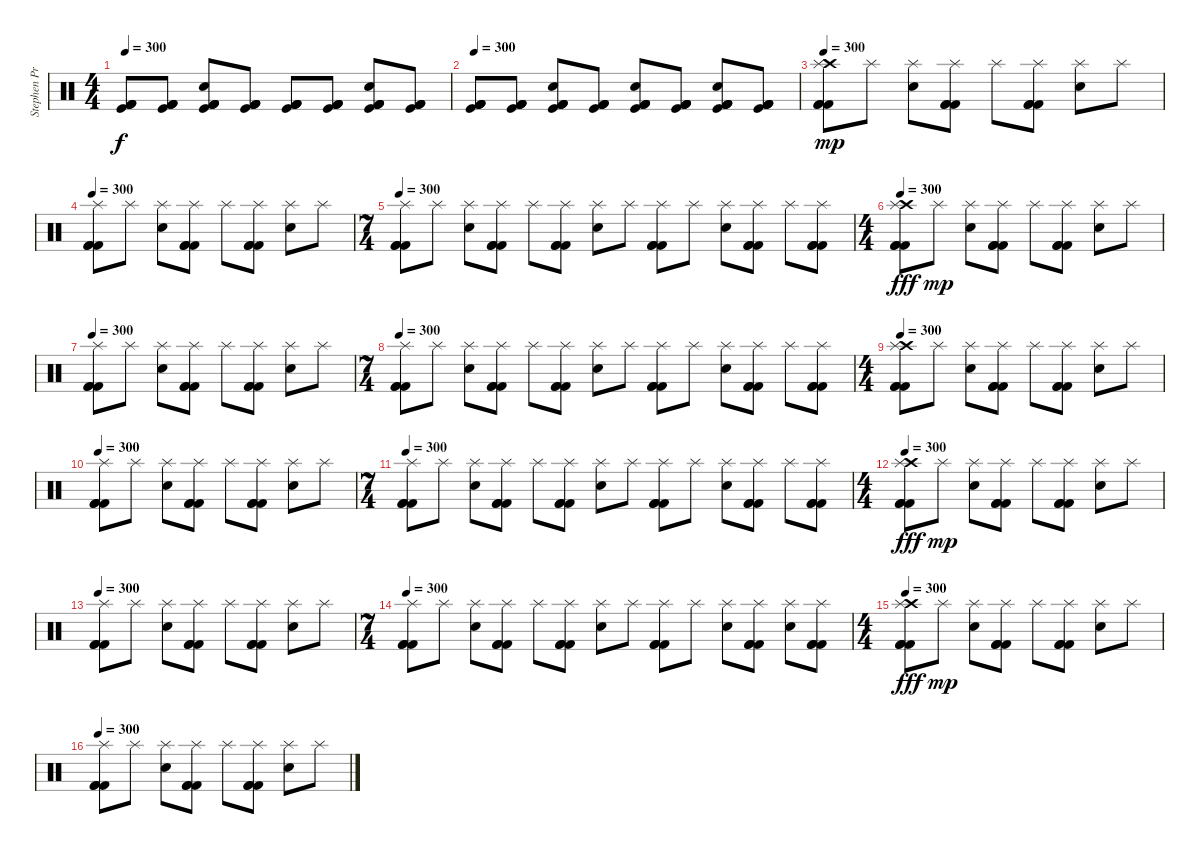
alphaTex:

\track ("Stephen Priestly  (Drums)" "Stephen Pr") {instrument percussion}
\staff {score}
\articulation defaults
\ts (4 4)
\tempo 300
\clef neutral
\ks c
("Kick (hit)" "Kick (hit) 2" "Kick (hit) 2" "Kick (hit) 2").8{dy f} ("Kick (hit)" "Kick (hit) 2" "Kick (hit) 2" "Kick (hit) 2").8 ("Electric Snare (hit)" "Kick (hit)" "Kick (hit) 2" "Kick (hit) 2" "Kick (hit) 2").8 ("Kick (hit)" "Kick (hit) 2" "Kick (hit) 2" "Kick (hit) 2").8 ("Kick (hit)" "Kick (hit) 2" "Kick (hit) 2" "Kick (hit) 2").8 ("Kick (hit)" "Kick (hit) 2" "Kick (hit) 2" "Kick (hit) 2").8 ("Electric Snare (hit)" "Kick (hit)" "Kick (hit) 2" "Kick (hit) 2" "Kick (hit) 2").8 ("Kick (hit)" "Kick (hit) 2" "Kick (hit) 2" "Kick (hit) 2").8 |
\tempo 300
("Kick (hit)" "Kick (hit) 2" "Kick (hit) 2" "Kick (hit) 2").8 ("Kick (hit)" "Kick (hit) 2" "Kick (hit) 2" "Kick (hit) 2").8 ("Electric Snare (hit)" "Kick (hit)" "Kick (hit) 2" "Kick (hit) 2" "Kick (hit) 2").8 ("Kick (hit)" "Kick (hit) 2" "Kick (hit) 2" "Kick (hit) 2").8 ("Electric Snare (hit)" "Kick (hit)" "Kick (hit) 2" "Kick (hit) 2" "Kick (hit) 2").8 ("Kick (hit)" "Kick (hit) 2" "Kick (hit) 2" "Kick (hit) 2").8 ("Electric Snare (hit)" "Kick (hit)" "Kick (hit) 2" "Kick (hit) 2" "Kick (hit) 2").8 ("Kick (hit)" "Kick (hit) 2" "Kick (hit) 2" "Kick (hit) 2").8 |
\tempo 128
\tempo 300
("Crash high (hit)" "Splash (hit)" "Kick (hit) 2" "Kick (hit) 2" "Kick (hit) 2").8{dy mp} "Splash (hit)".8 ("Splash (hit)" "Electric Snare (hit)").8 ("Splash (hit)" "Kick (hit) 2" "Kick (hit) 2" "Kick (hit) 2").8 "Splash (hit)".8 ("Splash (hit)" "Kick (hit) 2" "Kick (hit) 2" "Kick (hit) 2").8 ("Splash (hit)" "Electric Snare (hit)").8 "Splash (hit)".8 |
\tempo 300
("Splash (hit)" "Kick (hit) 2" "Kick (hit) 2" "Kick (hit) 2").8 "Splash (hit)".8 ("Splash (hit)" "Electric Snare (hit)").8 ("Splash (hit)" "Kick (hit) 2" "Kick (hit) 2" "Kick (hit) 2").8 "Splash (hit)".8 ("Splash (hit)" "Kick (hit) 2" "Kick (hit) 2" "Kick (hit) 2").8 ("Splash (hit)" "Electric Snare (hit)").8 "Splash (hit)".8 |
\ts (7 4)
\tempo 300
("Splash (hit)" "Kick (hit) 2" "Kick (hit) 2" "Kick (hit) 2").8 "Splash (hit)".8 ("Splash (hit)" "Electric Snare (hit)").8 ("Splash (hit)" "Kick (hit) 2" "Kick (hit) 2" "Kick (hit) 2").8 "Splash (hit)".8 ("Splash (hit)" "Kick (hit) 2" "Kick (hit) 2" "Kick (hit) 2").8 ("Splash (hit)" "Electric Snare (hit)").8 "Splash (hit)".8 ("Splash (hit)" "Kick (hit) 2" "Kick (hit) 2" "Kick (hit) 2").8 "Splash (hit)".8 ("Splash (hit)" "Electric Snare (hit)").8 ("Splash (hit)" "Kick (hit) 2" "Kick (hit) 2" "Kick (hit) 2").8 "Splash (hit)".8 ("Splash (hit)" "Kick (hit) 2" "Kick (hit) 2" "Kick (hit) 2").8 |
\ts (4 4)
\tempo 300
("Crash high (hit)" "Splash (hit)" "Kick (hit) 2" "Kick (hit) 2" "Kick (hit) 2").8{dy fff} "Splash (hit)".8{dy mp} ("Splash (hit)" "Electric Snare (hit)").8 ("Splash (hit)" "Kick (hit) 2" "Kick (hit) 2" "Kick (hit) 2").8 "Splash (hit)".8 ("Splash (hit)" "Kick (hit) 2" "Kick (hit) 2" "Kick (hit) 2").8 ("Splash (hit)" "Electric Snare (hit)").8 "Splash (hit)".8 |
\tempo 300
("Splash (hit)" "Kick (hit) 2" "Kick (hit) 2" "Kick (hit) 2").8 "Splash (hit)".8 ("Splash (hit)" "Electric Snare (hit)").8 ("Splash (hit)" "Kick (hit) 2" "Kick (hit) 2" "Kick (hit) 2").8 "Splash (hit)".8 ("Splash (hit)" "Kick (hit) 2" "Kick (hit) 2" "Kick (hit) 2").8 ("Splash (hit)" "Electric Snare (hit)").8 "Splash (hit)".8 |
\ts (7 4)
\tempo 300
("Splash (hit)" "Kick (hit) 2" "Kick (hit) 2" "Kick (hit) 2").8 "Splash (hit)".8 ("Splash (hit)" "Electric Snare (hit)").8 ("Splash (hit)" "Kick (hit) 2" "Kick (hit) 2" "Kick (hit) 2").8 "Splash (hit)".8 ("Splash (hit)" "Kick (hit) 2" "Kick (hit) 2" "Kick (hit) 2").8 ("Splash (hit)" "Electric Snare (hit)").8 "Splash (hit)".8 ("Splash (hit)" "Kick (hit) 2" "Kick (hit) 2" "Kick (hit) 2").8 "Splash (hit)".8 ("Splash (hit)" "Electric Snare (hit)").8 ("Splash (hit)" "Kick (hit) 2" "Kick (hit) 2" "Kick (hit) 2").8 "Splash (hit)".8 ("Splash (hit)" "Kick (hit) 2" "Kick (hit) 2" "Kick (hit) 2").8 |
\ts (4 4)
\tempo 300
("Crash high (hit)" "Splash (hit)" "Kick (hit) 2" "Kick (hit) 2" "Kick (hit) 2").8 "Splash (hit)".8 ("Splash (hit)" "Electric Snare (hit)").8 ("Splash (hit)" "Kick (hit) 2" "Kick (hit) 2" "Kick (hit) 2").8 "Splash (hit)".8 ("Splash (hit)" "Kick (hit) 2" "Kick (hit) 2" "Kick (hit) 2").8 ("Splash (hit)" "Electric Snare (hit)").8 "Splash (hit)".8 |
\tempo 300
("Splash (hit)" "Kick (hit) 2" "Kick (hit) 2" "Kick (hit) 2").8 "Splash (hit)".8 ("Splash (hit)" "Electric Snare (hit)").8 ("Splash (hit)" "Kick (hit) 2" "Kick (hit) 2" "Kick (hit) 2").8 "Splash (hit)".8 ("Splash (hit)" "Kick (hit) 2" "Kick (hit) 2" "Kick (hit) 2").8 ("Splash (hit)" "Electric Snare (hit)").8 "Splash (hit)".8 |
\ts (7 4)
\tempo 300
("Splash (hit)" "Kick (hit) 2" "Kick (hit) 2" "Kick (hit) 2").8 "Splash (hit)".8 ("Splash (hit)" "Electric Snare (hit)").8 ("Splash (hit)" "Kick (hit) 2" "Kick (hit) 2" "Kick (hit) 2").8 "Splash (hit)".8 ("Splash (hit)" "Kick (hit) 2" "Kick (hit) 2" "Kick (hit) 2").8 ("Splash (hit)" "Electric Snare (hit)").8 "Splash (hit)".8 ("Splash (hit)" "Kick (hit) 2" "Kick (hit) 2" "Kick (hit) 2").8 "Splash (hit)".8 ("Splash (hit)" "Electric Snare (hit)").8 ("Splash (hit)" "Kick (hit) 2" "Kick (hit) 2" "Kick (hit) 2").8 "Splash (hit)".8 ("Splash (hit)" "Kick (hit) 2" "Kick (hit) 2" "Kick (hit) 2").8 |
\ts (4 4)
\tempo 300
("Crash high (hit)" "Splash (hit)" "Kick (hit) 2" "Kick (hit) 2" "Kick (hit) 2").8{dy fff} "Splash (hit)".8{dy mp} ("Splash (hit)" "Electric Snare (hit)").8 ("Splash (hit)" "Kick (hit) 2" "Kick (hit) 2" "Kick (hit) 2").8 "Splash (hit)".8 ("Splash (hit)" "Kick (hit) 2" "Kick (hit) 2" "Kick (hit) 2").8 ("Splash (hit)" "Electric Snare (hit)").8 "Splash (hit)".8 |
\tempo 300
("Splash (hit)" "Kick (hit) 2" "Kick (hit) 2" "Kick (hit) 2").8 "Splash (hit)".8 ("Splash (hit)" "Electric Snare (hit)").8 ("Splash (hit)" "Kick (hit) 2" "Kick (hit) 2" "Kick (hit) 2").8 "Splash (hit)".8 ("Splash (hit)" "Kick (hit) 2" "Kick (hit) 2" "Kick (hit) 2").8 ("Splash (hit)" "Electric Snare (hit)").8 "Splash (hit)".8 |
\ts (7 4)
\tempo 300
("Splash (hit)" "Kick (hit) 2" "Kick (hit) 2" "Kick (hit) 2").8 "Splash (hit)".8 ("Splash (hit)" "Electric Snare (hit)").8 ("Splash (hit)" "Kick (hit) 2" "Kick (hit) 2" "Kick (hit) 2").8 "Splash (hit)".8 ("Splash (hit)" "Kick (hit) 2" "Kick (hit) 2" "Kick (hit) 2").8 ("Splash (hit)" "Electric Snare (hit)").8 "Splash (hit)".8 ("Splash (hit)" "Kick (hit) 2" "Kick (hit) 2" "Kick (hit) 2").8 "Splash (hit)".8 ("Splash (hit)" "Electric Snare (hit)").8 ("Splash (hit)" "Kick (hit) 2" "Kick (hit) 2" "Kick (hit) 2").8 ("Splash (hit)" "Electric Snare (hit)").8 ("Splash (hit)" "Kick (hit) 2" "Kick (hit) 2" "Kick (hit) 2").8 |
\ts (4 4)
\tempo 300
("Crash high (hit)" "Splash (hit)" "Kick (hit) 2" "Kick (hit) 2" "Kick (hit) 2").8{dy fff} "Splash (hit)".8{dy mp} ("Splash (hit)" "Electric Snare (hit)").8 ("Splash (hit)" "Kick (hit) 2" "Kick (hit) 2" "Kick (hit) 2").8 "Splash (hit)".8 ("Splash (hit)" "Kick (hit) 2" "Kick (hit) 2" "Kick (hit) 2").8 ("Splash (hit)" "Electric Snare (hit)").8 "Splash (hit)".8 |
\tempo 300
("Splash (hit)" "Kick (hit) 2" "Kick (hit) 2" "Kick (hit) 2").8 "Splash (hit)".8 ("Splash (hit)" "Electric Snare (hit)").8 ("Splash (hit)" "Kick (hit) 2" "Kick (hit) 2" "Kick (hit) 2").8 "Splash (hit)".8 ("Splash (hit)" "Kick (hit) 2" "Kick (hit) 2" "Kick (hit) 2").8 ("Splash (hit)" "Electric Snare (hit)").8 "Splash (hit)".8
